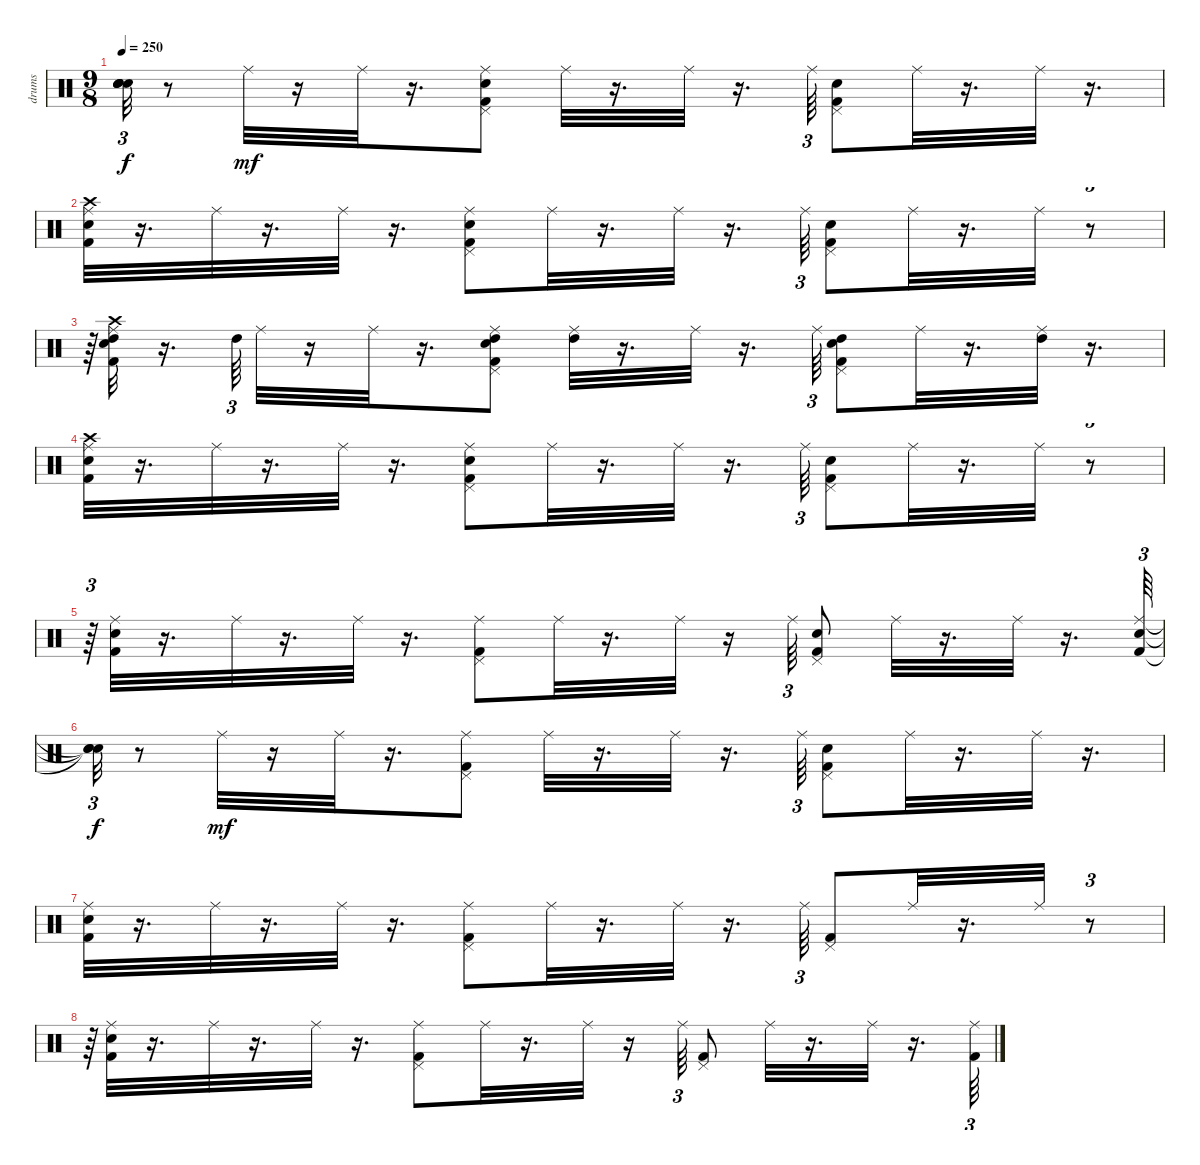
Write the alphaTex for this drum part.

\track ("drums               " "drums     ") {instrument percussion}
\staff {score}
\articulation defaults
\ts (9 8)
\tempo 250
\clef neutral
\ks c
("Snare (hit)"{t} "Snare (hit)"{t} "Snare (hit)"{t} "Snare (hit)"{t}).32{tu (3 2) dy f} r.8 "Ride (middle)".32{dy mf} r.16 "Ride (middle)".32 r.16{d} ("Pedal Hi-Hat (hit)" "Snare (hit) 2" "Kick (hit) 2" "Ride (middle)").8 "Ride (middle)".32 r.16{d} "Ride (middle)".32 r.16{d} "Ride (middle)".64{tu (3 2)} ("Snare (hit) 2" "Kick (hit) 2" "Pedal Hi-Hat (hit)").8 "Ride (middle)".32 r.16{d} "Ride (middle)".32 r.16{d} |
("Kick (hit) 2" "Snare (hit) 2" "Crash high (hit)" "Ride (middle)").32 r.16{d} "Ride (middle)".32 r.16{d} "Ride (middle)".32 r.16{d} ("Pedal Hi-Hat (hit)" "Snare (hit) 2" "Kick (hit) 2" "Ride (middle)").8 "Ride (middle)".32 r.16{d} "Ride (middle)".32 r.16{d} "Ride (middle)".64{tu (3 2)} ("Snare (hit) 2" "Kick (hit) 2" "Pedal Hi-Hat (hit)").8 "Ride (middle)".32 r.16{d} "Ride (middle)".32 r.8{tu (3 2)} |
r.64{tu (3 2)} ("Kick (hit) 2" "Snare (hit) 2" "Crash high (hit)" "High Tom (hit)" "Ride (middle)").32 r.16{d} "High Tom (hit)".64{tu (3 2)} "Ride (middle)".32 r.16 "Ride (middle)".32 r.16{d} ("Pedal Hi-Hat (hit)" "Snare (hit) 2" "Kick (hit) 2" "High Tom (hit)" "Ride (middle)").8 ("High Tom (hit)" "Ride (middle)").32 r.16{d} "Ride (middle)".32 r.16{d} "Ride (middle)".64{tu (3 2)} ("Snare (hit) 2" "Kick (hit) 2" "Pedal Hi-Hat (hit)" "High Tom (hit)").8 "Ride (middle)".32 r.16{d} ("High Tom (hit)" "Ride (middle)").32 r.16{d} |
("Kick (hit) 2" "Snare (hit) 2" "Crash high (hit)" "Ride (middle)").32 r.16{d} "Ride (middle)".32 r.16{d} "Ride (middle)".32 r.16{d} ("Pedal Hi-Hat (hit)" "Snare (hit) 2" "Kick (hit) 2" "Ride (middle)").8 "Ride (middle)".32 r.16{d} "Ride (middle)".32 r.16{d} "Ride (middle)".64{tu (3 2)} ("Snare (hit) 2" "Kick (hit) 2" "Pedal Hi-Hat (hit)").8 "Ride (middle)".32 r.16{d} "Ride (middle)".32 r.8{tu (3 2)} |
r.64{tu (3 2)} ("Kick (hit) 2" "Snare (hit) 2" "Ride (middle)").32 r.16{d} "Ride (middle)".32 r.16{d} "Ride (middle)".32 r.16{d} ("Pedal Hi-Hat (hit)" "Kick (hit) 2" "Ride (middle)").8 "Ride (middle)".32 r.16{d} "Ride (middle)".32 r.16 "Ride (middle)".64{tu (3 2)} ("Snare (hit) 2" "Kick (hit) 2" "Pedal Hi-Hat (hit)").8 "Ride (middle)".32 r.16{d} "Ride (middle)".32 r.16{d} ("Kick (hit) 2" "Snare (hit) 2" "Ride (middle)").64{tu (3 2)} |
("Snare (hit)"{t} "Snare (hit)"{t} "Snare (hit)"{t}).32{tu (3 2) dy f} r.8 "Ride (middle)".32{dy mf} r.16 "Ride (middle)".32 r.16{d} ("Pedal Hi-Hat (hit)" "Kick (hit) 2" "Ride (middle)").8 "Ride (middle)".32 r.16{d} "Ride (middle)".32 r.16{d} "Ride (middle)".64{tu (3 2)} ("Snare (hit) 2" "Kick (hit) 2" "Pedal Hi-Hat (hit)").8 "Ride (middle)".32 r.16{d} "Ride (middle)".32 r.16{d} |
("Kick (hit) 2" "Snare (hit) 2" "Ride (middle)").32 r.16{d} "Ride (middle)".32 r.16{d} "Ride (middle)".32 r.16{d} ("Pedal Hi-Hat (hit)" "Kick (hit) 2" "Ride (middle)").8 "Ride (middle)".32 r.16{d} "Ride (middle)".32 r.16{d} "Ride (middle)".64{tu (3 2)} ("Kick (hit) 2" "Pedal Hi-Hat (hit)").8 "Ride (middle)".32 r.16{d} "Ride (middle)".32 r.8{tu (3 2)} |
r.64{tu (3 2)} ("Snare (hit) 2" "Kick (hit) 2" "Ride (middle)").32 r.16{d} "Ride (middle)".32 r.16{d} "Ride (middle)".32 r.16{d} ("Pedal Hi-Hat (hit)" "Kick (hit) 2" "Ride (middle)").8 "Ride (middle)".32 r.16{d} "Ride (middle)".32 r.16 "Ride (middle)".64{tu (3 2)} ("Kick (hit) 2" "Pedal Hi-Hat (hit)").8 "Ride (middle)".32 r.16{d} "Ride (middle)".32 r.16{d} ("Kick (hit) 2" "Ride (middle)").64{tu (3 2)}
